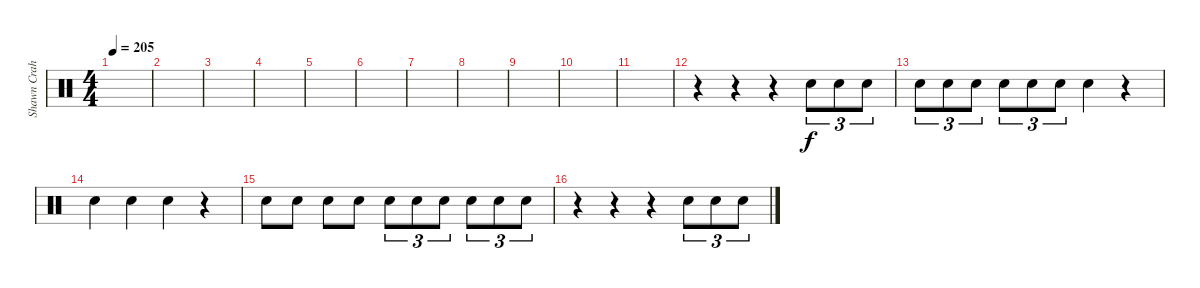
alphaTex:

\track ("Shawn Crahan" "Shawn Crah") {instrument percussion}
\staff {score}
\articulation defaults
\ts (4 4)
\tempo 205
\clef neutral
\ks c
|
|
|
|
|
|
|
|
|
|
|
r.4 r.4 r.4 "Electric Snare (hit)".8{tu (3 2)} "Electric Snare (hit)".8{tu (3 2)} "Electric Snare (hit)".8{tu (3 2)} |
"Electric Snare (hit)".8{tu (3 2)} "Electric Snare (hit)".8{tu (3 2)} "Electric Snare (hit)".8{tu (3 2)} "Electric Snare (hit)".8{tu (3 2)} "Electric Snare (hit)".8{tu (3 2)} "Electric Snare (hit)".8{tu (3 2)} "Electric Snare (hit)".4 r.4 |
"Electric Snare (hit)".4 "Electric Snare (hit)".4 "Electric Snare (hit)".4 r.4 |
"Electric Snare (hit)".8 "Electric Snare (hit)".8 "Electric Snare (hit)".8 "Electric Snare (hit)".8 "Electric Snare (hit)".8{tu (3 2)} "Electric Snare (hit)".8{tu (3 2)} "Electric Snare (hit)".8{tu (3 2)} "Electric Snare (hit)".8{tu (3 2)} "Electric Snare (hit)".8{tu (3 2)} "Electric Snare (hit)".8{tu (3 2)} |
r.4 r.4 r.4 "Electric Snare (hit)".8{tu (3 2)} "Electric Snare (hit)".8{tu (3 2)} "Electric Snare (hit)".8{tu (3 2)}
